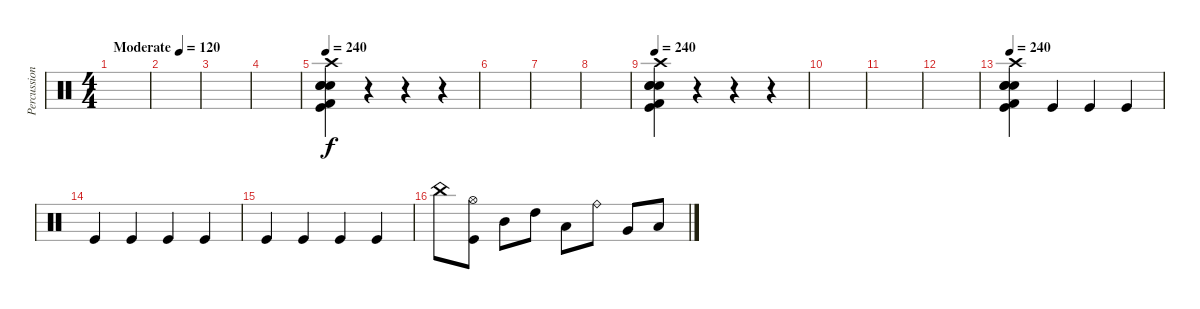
\track ("Percussion" "Percussion") {instrument percussion}
\staff {score}
\articulation defaults
\ts (4 4)
\tempo (120 "Moderate")
\tempo 240
\tempo (120 "Moderate")
\clef neutral
\ks c
|
|
|
|
\tempo 240
("Crash high (hit)" "Hand Clap (hit)" "Snare (hit) 2" "Kick (hit) 2" "Metronome (bell)" "Kick (hit)").4 r.4 r.4 r.4 |
|
|
|
\tempo 240
("Crash high (hit)" "Hand Clap (hit)" "Snare (hit) 2" "Kick (hit) 2" "Metronome (bell)" "Kick (hit)").4 r.4 r.4 r.4 |
|
|
|
\tempo 240
("Crash high (hit)" "Hand Clap (hit)" "Snare (hit) 2" "Kick (hit) 2" "Metronome (bell)" "Kick (hit)").4 "Kick (hit)".4 "Kick (hit)".4 "Kick (hit)".4 |
"Kick (hit)".4 "Kick (hit)".4 "Kick (hit)".4 "Kick (hit)".4 |
"Kick (hit)".4 "Kick (hit)".4 "Kick (hit)".4 "Kick (hit)".4 |
"China (hit)".8 ("Hi-Hat (open)" "Kick (hit)").8 "Mid Tom (hit)".8 "High Tom (hit)".8 "Low Floor Tom (hit)".8 "Ride (bell)".8 "Very Low Tom (hit)".8 "Low Tom (hit)".8
